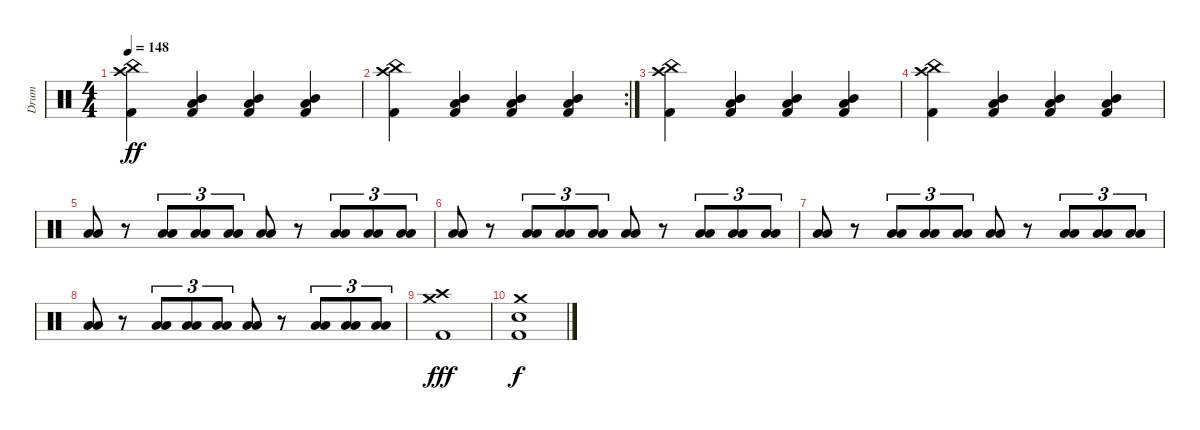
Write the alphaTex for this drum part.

\track ("Drum" "Drum") {instrument percussion}
\staff {score}
\articulation defaults
\ts (4 4)
\tempo 148
\clef neutral
\ks c
("Crash high (hit)" "China (hit)" "Kick (hit) 2").4{dy ff} ("Low Tom (hit)" "Mid Tom (hit)" "Kick (hit) 2").4 ("Low Tom (hit)" "Mid Tom (hit)" "Kick (hit) 2").4 ("Low Tom (hit)" "Mid Tom (hit)" "Kick (hit) 2").4 |
\rc 2
("Crash high (hit)" "China (hit)" "Kick (hit) 2").4 ("Low Tom (hit)" "Mid Tom (hit)" "Kick (hit) 2").4 ("Low Tom (hit)" "Mid Tom (hit)" "Kick (hit) 2").4 ("Low Tom (hit)" "Mid Tom (hit)" "Kick (hit) 2").4 |
("Crash high (hit)" "China (hit)" "Kick (hit) 2").4 ("Low Tom (hit)" "Mid Tom (hit)" "Kick (hit) 2").4 ("Low Tom (hit)" "Mid Tom (hit)" "Kick (hit) 2").4 ("Low Tom (hit)" "Mid Tom (hit)" "Kick (hit) 2").4 |
("Crash high (hit)" "China (hit)" "Kick (hit) 2").4 ("Low Tom (hit)" "Mid Tom (hit)" "Kick (hit) 2").4 ("Low Tom (hit)" "Mid Tom (hit)" "Kick (hit) 2").4 ("Low Tom (hit)" "Mid Tom (hit)" "Kick (hit) 2").4 |
("Low Tom (hit)" "Low Floor Tom (hit)").8 r.8 ("Low Tom (hit)" "Low Floor Tom (hit)").8{tu (3 2)} ("Low Tom (hit)" "Low Floor Tom (hit)").8{tu (3 2)} ("Low Tom (hit)" "Low Floor Tom (hit)").8{tu (3 2)} ("Low Tom (hit)" "Low Floor Tom (hit)").8 r.8 ("Low Tom (hit)" "Low Floor Tom (hit)").8{tu (3 2)} ("Low Tom (hit)" "Low Floor Tom (hit)").8{tu (3 2)} ("Low Tom (hit)" "Low Floor Tom (hit)").8{tu (3 2)} |
("Low Tom (hit)" "Low Floor Tom (hit)").8 r.8 ("Low Tom (hit)" "Low Floor Tom (hit)").8{tu (3 2)} ("Low Tom (hit)" "Low Floor Tom (hit)").8{tu (3 2)} ("Low Tom (hit)" "Low Floor Tom (hit)").8{tu (3 2)} ("Low Tom (hit)" "Low Floor Tom (hit)").8 r.8 ("Low Tom (hit)" "Low Floor Tom (hit)").8{tu (3 2)} ("Low Tom (hit)" "Low Floor Tom (hit)").8{tu (3 2)} ("Low Tom (hit)" "Low Floor Tom (hit)").8{tu (3 2)} |
("Low Tom (hit)" "Low Floor Tom (hit)").8 r.8 ("Low Tom (hit)" "Low Floor Tom (hit)").8{tu (3 2)} ("Low Tom (hit)" "Low Floor Tom (hit)").8{tu (3 2)} ("Low Tom (hit)" "Low Floor Tom (hit)").8{tu (3 2)} ("Low Tom (hit)" "Low Floor Tom (hit)").8 r.8 ("Low Tom (hit)" "Low Floor Tom (hit)").8{tu (3 2)} ("Low Tom (hit)" "Low Floor Tom (hit)").8{tu (3 2)} ("Low Tom (hit)" "Low Floor Tom (hit)").8{tu (3 2)} |
("Low Tom (hit)" "Low Floor Tom (hit)").8 r.8 ("Low Tom (hit)" "Low Floor Tom (hit)").8{tu (3 2)} ("Low Tom (hit)" "Low Floor Tom (hit)").8{tu (3 2)} ("Low Tom (hit)" "Low Floor Tom (hit)").8{tu (3 2)} ("Low Tom (hit)" "Low Floor Tom (hit)").8 r.8 ("Low Tom (hit)" "Low Floor Tom (hit)").8{tu (3 2)} ("Low Tom (hit)" "Low Floor Tom (hit)").8{tu (3 2)} ("Low Tom (hit)" "Low Floor Tom (hit)").8{tu (3 2)} |
("Crash high (hit)" "Crash medium (hit)" "Kick (hit) 2").1{dy fff} |
("Crash medium (hit)" "Electric Snare (hit)" "Kick (hit) 2").1{dy f}
